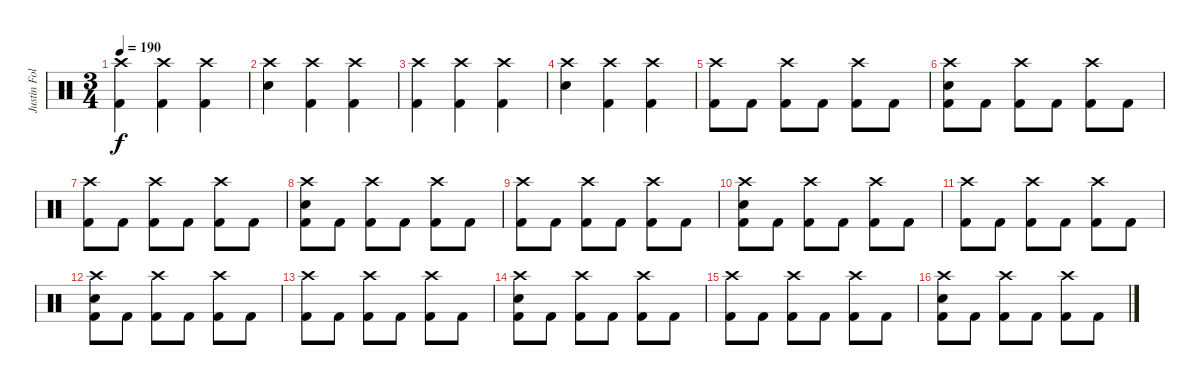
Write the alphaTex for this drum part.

\track ("Justin Foley" "Justin Fol") {instrument percussion}
\staff {score}
\articulation defaults
\ts (3 4)
\tempo 190
\clef neutral
\ks c
("Crash high (hit)" "Kick (hit) 2").4{dy f} ("Crash high (hit)" "Kick (hit) 2").4 ("Crash high (hit)" "Kick (hit) 2").4 |
("Crash high (hit)" "Electric Snare (hit)").4 ("Crash high (hit)" "Kick (hit) 2").4 ("Crash high (hit)" "Kick (hit) 2").4 |
("Crash high (hit)" "Kick (hit) 2").4 ("Crash high (hit)" "Kick (hit) 2").4 ("Crash high (hit)" "Kick (hit) 2").4 |
("Crash high (hit)" "Electric Snare (hit)").4 ("Crash high (hit)" "Kick (hit) 2").4 ("Crash high (hit)" "Kick (hit) 2").4 |
("Crash high (hit)" "Kick (hit) 2").8 "Kick (hit) 2".8 ("Crash high (hit)" "Kick (hit) 2").8 "Kick (hit) 2".8 ("Crash high (hit)" "Kick (hit) 2").8 "Kick (hit) 2".8 |
("Crash high (hit)" "Electric Snare (hit)" "Kick (hit) 2").8 "Kick (hit) 2".8 ("Crash high (hit)" "Kick (hit) 2").8 "Kick (hit) 2".8 ("Crash high (hit)" "Kick (hit) 2").8 "Kick (hit) 2".8 |
("Crash high (hit)" "Kick (hit) 2").8 "Kick (hit) 2".8 ("Crash high (hit)" "Kick (hit) 2").8 "Kick (hit) 2".8 ("Crash high (hit)" "Kick (hit) 2").8 "Kick (hit) 2".8 |
("Crash high (hit)" "Electric Snare (hit)" "Kick (hit) 2").8 "Kick (hit) 2".8 ("Crash high (hit)" "Kick (hit) 2").8 "Kick (hit) 2".8 ("Crash high (hit)" "Kick (hit) 2").8 "Kick (hit) 2".8 |
("Crash high (hit)" "Kick (hit) 2").8 "Kick (hit) 2".8 ("Crash high (hit)" "Kick (hit) 2").8 "Kick (hit) 2".8 ("Crash high (hit)" "Kick (hit) 2").8 "Kick (hit) 2".8 |
("Crash high (hit)" "Electric Snare (hit)" "Kick (hit) 2").8 "Kick (hit) 2".8 ("Crash high (hit)" "Kick (hit) 2").8 "Kick (hit) 2".8 ("Crash high (hit)" "Kick (hit) 2").8 "Kick (hit) 2".8 |
("Crash high (hit)" "Kick (hit) 2").8 "Kick (hit) 2".8 ("Crash high (hit)" "Kick (hit) 2").8 "Kick (hit) 2".8 ("Crash high (hit)" "Kick (hit) 2").8 "Kick (hit) 2".8 |
("Crash high (hit)" "Electric Snare (hit)" "Kick (hit) 2").8 "Kick (hit) 2".8 ("Crash high (hit)" "Kick (hit) 2").8 "Kick (hit) 2".8 ("Crash high (hit)" "Kick (hit) 2").8 "Kick (hit) 2".8 |
("Crash high (hit)" "Kick (hit) 2").8 "Kick (hit) 2".8 ("Crash high (hit)" "Kick (hit) 2").8 "Kick (hit) 2".8 ("Crash high (hit)" "Kick (hit) 2").8 "Kick (hit) 2".8 |
("Crash high (hit)" "Electric Snare (hit)" "Kick (hit) 2").8 "Kick (hit) 2".8 ("Crash high (hit)" "Kick (hit) 2").8 "Kick (hit) 2".8 ("Crash high (hit)" "Kick (hit) 2").8 "Kick (hit) 2".8 |
("Crash high (hit)" "Kick (hit) 2").8 "Kick (hit) 2".8 ("Crash high (hit)" "Kick (hit) 2").8 "Kick (hit) 2".8 ("Crash high (hit)" "Kick (hit) 2").8 "Kick (hit) 2".8 |
("Crash high (hit)" "Electric Snare (hit)" "Kick (hit) 2").8 "Kick (hit) 2".8 ("Crash high (hit)" "Kick (hit) 2").8 "Kick (hit) 2".8 ("Crash high (hit)" "Kick (hit) 2").8 "Kick (hit) 2".8
